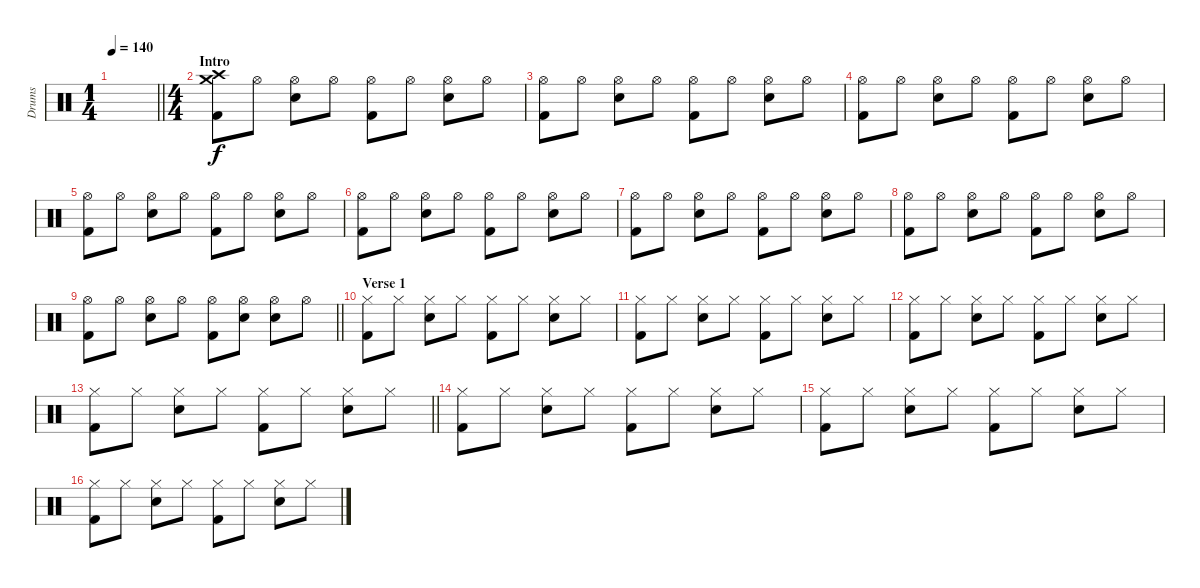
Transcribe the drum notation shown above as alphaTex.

\track ("Drums" "Drums") {instrument percussion}
\staff {score}
\articulation defaults
\ts (1 4)
\tempo 140
\clef neutral
\barLineRight lightlight
\ks c
|
\ts (4 4)
\section ("" "Intro")
("Crash medium (hit)" "Crash high (hit)" "Kick (hit) 2").8 "Hi-Hat (open)".8 ("Hi-Hat (open)" "Snare (hit) 2").8 "Hi-Hat (open)".8 ("Hi-Hat (open)" "Kick (hit) 2").8 "Hi-Hat (open)".8 ("Hi-Hat (open)" "Snare (hit) 2").8 "Hi-Hat (open)".8 |
("Hi-Hat (open)" "Kick (hit) 2").8 "Hi-Hat (open)".8 ("Hi-Hat (open)" "Snare (hit) 2").8 "Hi-Hat (open)".8 ("Hi-Hat (open)" "Kick (hit) 2").8 "Hi-Hat (open)".8 ("Hi-Hat (open)" "Snare (hit) 2").8 "Hi-Hat (open)".8 |
("Hi-Hat (open)" "Kick (hit) 2").8 "Hi-Hat (open)".8 ("Hi-Hat (open)" "Snare (hit) 2").8 "Hi-Hat (open)".8 ("Hi-Hat (open)" "Kick (hit) 2").8 "Hi-Hat (open)".8 ("Hi-Hat (open)" "Snare (hit) 2").8 "Hi-Hat (open)".8 |
("Hi-Hat (open)" "Kick (hit) 2").8 "Hi-Hat (open)".8 ("Hi-Hat (open)" "Snare (hit) 2").8 "Hi-Hat (open)".8 ("Hi-Hat (open)" "Kick (hit) 2").8 "Hi-Hat (open)".8 ("Hi-Hat (open)" "Snare (hit) 2").8 "Hi-Hat (open)".8 |
("Hi-Hat (open)" "Kick (hit) 2").8 "Hi-Hat (open)".8 ("Hi-Hat (open)" "Snare (hit) 2").8 "Hi-Hat (open)".8 ("Hi-Hat (open)" "Kick (hit) 2").8 "Hi-Hat (open)".8 ("Hi-Hat (open)" "Snare (hit) 2").8 "Hi-Hat (open)".8 |
("Hi-Hat (open)" "Kick (hit) 2").8 "Hi-Hat (open)".8 ("Hi-Hat (open)" "Snare (hit) 2").8 "Hi-Hat (open)".8 ("Hi-Hat (open)" "Kick (hit) 2").8 "Hi-Hat (open)".8 ("Hi-Hat (open)" "Snare (hit) 2").8 "Hi-Hat (open)".8 |
("Hi-Hat (open)" "Kick (hit) 2").8 "Hi-Hat (open)".8 ("Hi-Hat (open)" "Snare (hit) 2").8 "Hi-Hat (open)".8 ("Hi-Hat (open)" "Kick (hit) 2").8 "Hi-Hat (open)".8 ("Hi-Hat (open)" "Snare (hit) 2").8 "Hi-Hat (open)".8 |
\barLineRight lightlight
("Hi-Hat (open)" "Kick (hit) 2").8 "Hi-Hat (open)".8 ("Hi-Hat (open)" "Snare (hit) 2").8 "Hi-Hat (open)".8 ("Hi-Hat (open)" "Kick (hit) 2").8 ("Hi-Hat (open)" "Snare (hit) 2").8 ("Hi-Hat (open)" "Snare (hit) 2").8 "Hi-Hat (open)".8 |
\section ("" "Verse 1")
("Hi-Hat (closed)" "Kick (hit) 2").8 "Hi-Hat (closed)".8 ("Hi-Hat (closed)" "Snare (hit) 2").8 "Hi-Hat (closed)".8 ("Hi-Hat (closed)" "Kick (hit) 2").8 "Hi-Hat (closed)".8 ("Hi-Hat (closed)" "Snare (hit) 2").8 "Hi-Hat (closed)".8 |
("Hi-Hat (closed)" "Kick (hit) 2").8 "Hi-Hat (closed)".8 ("Hi-Hat (closed)" "Snare (hit) 2").8 "Hi-Hat (closed)".8 ("Hi-Hat (closed)" "Kick (hit) 2").8 "Hi-Hat (closed)".8 ("Hi-Hat (closed)" "Snare (hit) 2").8 "Hi-Hat (closed)".8 |
("Hi-Hat (closed)" "Kick (hit) 2").8 "Hi-Hat (closed)".8 ("Hi-Hat (closed)" "Snare (hit) 2").8 "Hi-Hat (closed)".8 ("Hi-Hat (closed)" "Kick (hit) 2").8 "Hi-Hat (closed)".8 ("Hi-Hat (closed)" "Snare (hit) 2").8 "Hi-Hat (closed)".8 |
\barLineRight lightlight
("Hi-Hat (closed)" "Kick (hit) 2").8 "Hi-Hat (closed)".8 ("Hi-Hat (closed)" "Snare (hit) 2").8 "Hi-Hat (closed)".8 ("Hi-Hat (closed)" "Kick (hit) 2").8 "Hi-Hat (closed)".8 ("Hi-Hat (closed)" "Snare (hit) 2").8 "Hi-Hat (closed)".8 |
("Hi-Hat (closed)" "Kick (hit) 2").8 "Hi-Hat (closed)".8 ("Hi-Hat (closed)" "Snare (hit) 2").8 "Hi-Hat (closed)".8 ("Hi-Hat (closed)" "Kick (hit) 2").8 "Hi-Hat (closed)".8 ("Hi-Hat (closed)" "Snare (hit) 2").8 "Hi-Hat (closed)".8 |
("Hi-Hat (closed)" "Kick (hit) 2").8 "Hi-Hat (closed)".8 ("Hi-Hat (closed)" "Snare (hit) 2").8 "Hi-Hat (closed)".8 ("Hi-Hat (closed)" "Kick (hit) 2").8 "Hi-Hat (closed)".8 ("Hi-Hat (closed)" "Snare (hit) 2").8 "Hi-Hat (closed)".8 |
("Hi-Hat (closed)" "Kick (hit) 2").8 "Hi-Hat (closed)".8 ("Hi-Hat (closed)" "Snare (hit) 2").8 "Hi-Hat (closed)".8 ("Hi-Hat (closed)" "Kick (hit) 2").8 "Hi-Hat (closed)".8 ("Hi-Hat (closed)" "Snare (hit) 2").8 "Hi-Hat (closed)".8
